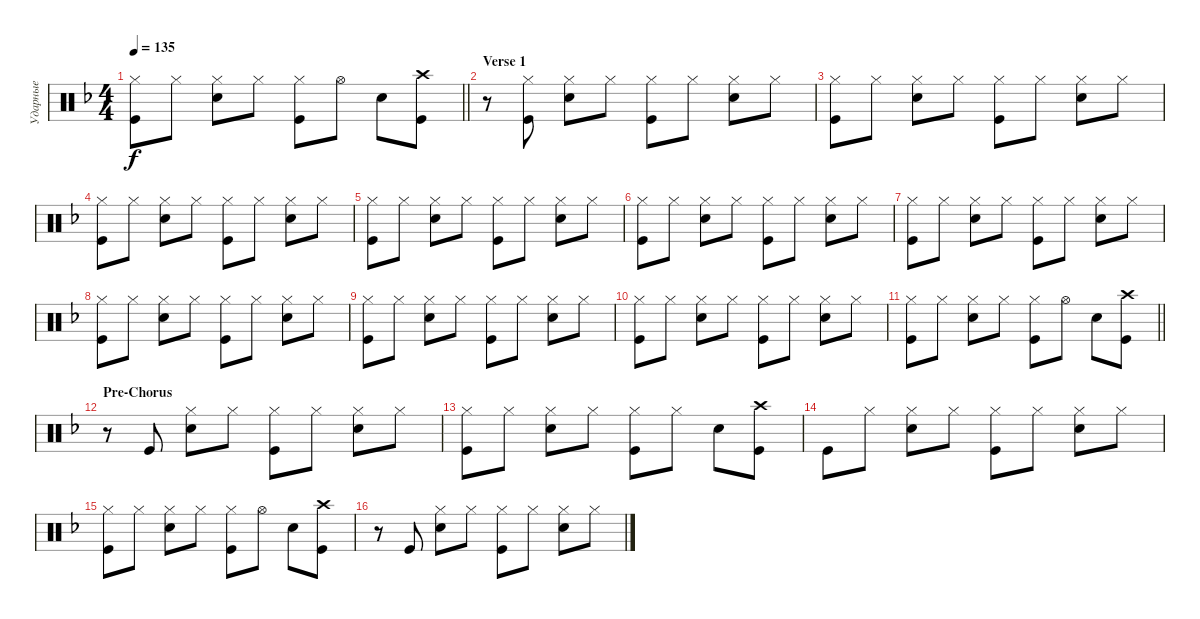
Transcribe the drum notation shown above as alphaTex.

\track ("Ударные" "Ударные") {instrument percussion}
\staff {score}
\articulation defaults
\ts (4 4)
\tempo 135
\clef neutral
\barLineRight lightlight
\ks dminor
("Hi-Hat (closed)" "Kick (hit)").8{dy f} "Hi-Hat (closed)".8 ("Hi-Hat (closed)" "Snare (hit) 2").8 "Hi-Hat (closed)".8 ("Hi-Hat (closed)" "Kick (hit)").8 "Hi-Hat (open)".8 "Snare (hit) 2".8 ("Kick (hit)" "Crash high (hit)").8 |
\section ("" "Verse 1")
r.8 ("Hi-Hat (closed)" "Kick (hit)").8 ("Hi-Hat (closed)" "Snare (hit) 2").8 "Hi-Hat (closed)".8 ("Hi-Hat (closed)" "Kick (hit)").8 "Hi-Hat (closed)".8 ("Hi-Hat (closed)" "Snare (hit) 2").8 "Hi-Hat (closed)".8 |
("Hi-Hat (closed)" "Kick (hit)").8 "Hi-Hat (closed)".8 ("Hi-Hat (closed)" "Snare (hit) 2").8 "Hi-Hat (closed)".8 ("Hi-Hat (closed)" "Kick (hit)").8 "Hi-Hat (closed)".8 ("Hi-Hat (closed)" "Snare (hit) 2").8 "Hi-Hat (closed)".8 |
("Hi-Hat (closed)" "Kick (hit)").8 "Hi-Hat (closed)".8 ("Hi-Hat (closed)" "Snare (hit) 2").8 "Hi-Hat (closed)".8 ("Hi-Hat (closed)" "Kick (hit)").8 "Hi-Hat (closed)".8 ("Hi-Hat (closed)" "Snare (hit) 2").8 "Hi-Hat (closed)".8 |
("Hi-Hat (closed)" "Kick (hit)").8 "Hi-Hat (closed)".8 ("Hi-Hat (closed)" "Snare (hit) 2").8 "Hi-Hat (closed)".8 ("Hi-Hat (closed)" "Kick (hit)").8 "Hi-Hat (closed)".8 ("Hi-Hat (closed)" "Snare (hit) 2").8 "Hi-Hat (closed)".8 |
("Hi-Hat (closed)" "Kick (hit)").8 "Hi-Hat (closed)".8 ("Hi-Hat (closed)" "Snare (hit) 2").8 "Hi-Hat (closed)".8 ("Hi-Hat (closed)" "Kick (hit)").8 "Hi-Hat (closed)".8 ("Hi-Hat (closed)" "Snare (hit) 2").8 "Hi-Hat (closed)".8 |
("Hi-Hat (closed)" "Kick (hit)").8 "Hi-Hat (closed)".8 ("Hi-Hat (closed)" "Snare (hit) 2").8 "Hi-Hat (closed)".8 ("Hi-Hat (closed)" "Kick (hit)").8 "Hi-Hat (closed)".8 ("Hi-Hat (closed)" "Snare (hit) 2").8 "Hi-Hat (closed)".8 |
("Hi-Hat (closed)" "Kick (hit)").8 "Hi-Hat (closed)".8 ("Hi-Hat (closed)" "Snare (hit) 2").8 "Hi-Hat (closed)".8 ("Hi-Hat (closed)" "Kick (hit)").8 "Hi-Hat (closed)".8 ("Hi-Hat (closed)" "Snare (hit) 2").8 "Hi-Hat (closed)".8 |
("Hi-Hat (closed)" "Kick (hit)").8 "Hi-Hat (closed)".8 ("Hi-Hat (closed)" "Snare (hit) 2").8 "Hi-Hat (closed)".8 ("Hi-Hat (closed)" "Kick (hit)").8 "Hi-Hat (closed)".8 ("Hi-Hat (closed)" "Snare (hit) 2").8 "Hi-Hat (closed)".8 |
("Hi-Hat (closed)" "Kick (hit)").8 "Hi-Hat (closed)".8 ("Hi-Hat (closed)" "Snare (hit) 2").8 "Hi-Hat (closed)".8 ("Hi-Hat (closed)" "Kick (hit)").8 "Hi-Hat (closed)".8 ("Hi-Hat (closed)" "Snare (hit) 2").8 "Hi-Hat (closed)".8 |
\barLineRight lightlight
("Hi-Hat (closed)" "Kick (hit)").8 "Hi-Hat (closed)".8 ("Hi-Hat (closed)" "Snare (hit) 2").8 "Hi-Hat (closed)".8 ("Hi-Hat (closed)" "Kick (hit)").8 "Hi-Hat (open)".8 "Snare (hit) 2".8 ("Kick (hit)" "Crash high (hit)").8 |
\section ("" "Pre-Chorus")
r.8 "Kick (hit)".8 ("Hi-Hat (closed)" "Snare (hit) 2").8 "Hi-Hat (closed)".8 ("Hi-Hat (closed)" "Kick (hit)").8 "Hi-Hat (closed)".8 ("Hi-Hat (closed)" "Snare (hit) 2").8 "Hi-Hat (closed)".8 |
("Hi-Hat (closed)" "Kick (hit)").8 "Hi-Hat (closed)".8 ("Hi-Hat (closed)" "Snare (hit) 2").8 "Hi-Hat (closed)".8 ("Hi-Hat (closed)" "Kick (hit)").8 "Hi-Hat (closed)".8 "Snare (hit) 2".8 ("Kick (hit)" "Crash high (hit)").8 |
"Kick (hit)".8 "Hi-Hat (closed)".8 ("Hi-Hat (closed)" "Snare (hit) 2").8 "Hi-Hat (closed)".8 ("Hi-Hat (closed)" "Kick (hit)").8 "Hi-Hat (closed)".8 ("Hi-Hat (closed)" "Snare (hit) 2").8 "Hi-Hat (closed)".8 |
("Hi-Hat (closed)" "Kick (hit)").8 "Hi-Hat (closed)".8 ("Hi-Hat (closed)" "Snare (hit) 2").8 "Hi-Hat (closed)".8 ("Hi-Hat (closed)" "Kick (hit)").8 "Hi-Hat (open)".8 "Snare (hit) 2".8 ("Kick (hit)" "Crash high (hit)").8 |
r.8 "Kick (hit)".8 ("Hi-Hat (closed)" "Snare (hit) 2").8 "Hi-Hat (closed)".8 ("Hi-Hat (closed)" "Kick (hit)").8 "Hi-Hat (closed)".8 ("Hi-Hat (closed)" "Snare (hit) 2").8 "Hi-Hat (closed)".8
